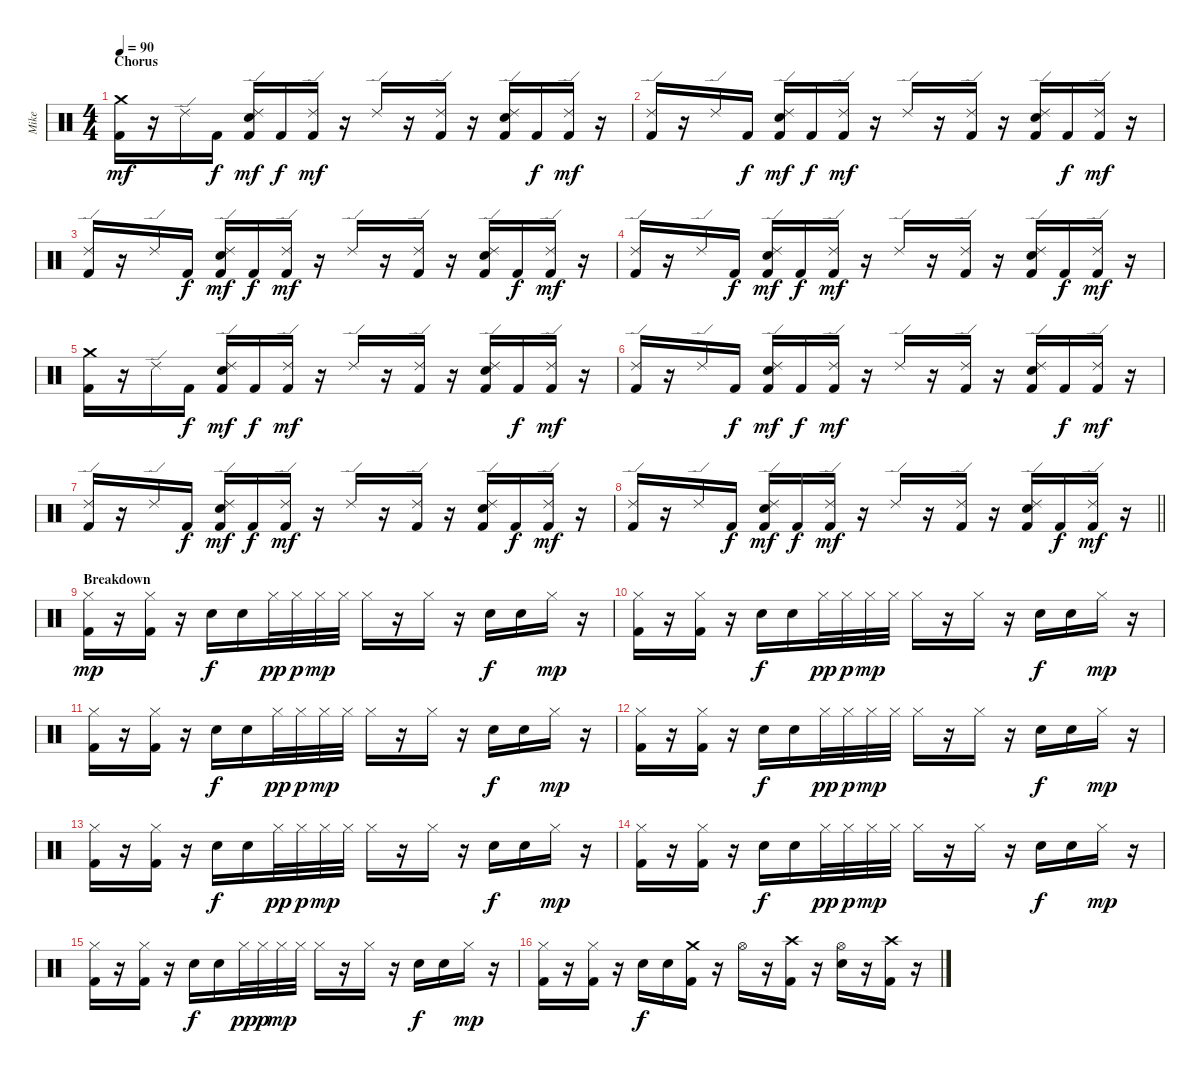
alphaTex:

\track ("Mike" "Mike") {instrument percussion}
\staff {score}
\articulation defaults
\ts (4 4)
\section ("" "Chorus")
\tempo 90
\clef neutral
\ks c
("Crash medium (hit)" "Kick (hit) 2").16{dy mf} r.16 "Ride (edge) 2".16 "Kick (hit) 2".16{dy f} ("Ride (edge) 2" "Snare (hit) 2" "Kick (hit) 2").16{dy mf} "Kick (hit) 2".16{dy f} ("Ride (edge) 2" "Kick (hit) 2").16{dy mf} r.16 "Ride (edge) 2".16 r.16 ("Ride (edge) 2" "Kick (hit) 2").16 r.16 ("Ride (edge) 2" "Snare (hit) 2" "Kick (hit) 2").16 "Kick (hit) 2".16{dy f} ("Ride (edge) 2" "Kick (hit) 2").16{dy mf} r.16 |
("Ride (edge) 2" "Kick (hit) 2").16 r.16 "Ride (edge) 2".16 "Kick (hit) 2".16{dy f} ("Ride (edge) 2" "Snare (hit) 2" "Kick (hit) 2").16{dy mf} "Kick (hit) 2".16{dy f} ("Ride (edge) 2" "Kick (hit) 2").16{dy mf} r.16 "Ride (edge) 2".16 r.16 ("Ride (edge) 2" "Kick (hit) 2").16 r.16 ("Ride (edge) 2" "Snare (hit) 2" "Kick (hit) 2").16 "Kick (hit) 2".16{dy f} ("Ride (edge) 2" "Kick (hit) 2").16{dy mf} r.16 |
("Ride (edge) 2" "Kick (hit) 2").16 r.16 "Ride (edge) 2".16 "Kick (hit) 2".16{dy f} ("Ride (edge) 2" "Snare (hit) 2" "Kick (hit) 2").16{dy mf} "Kick (hit) 2".16{dy f} ("Ride (edge) 2" "Kick (hit) 2").16{dy mf} r.16 "Ride (edge) 2".16 r.16 ("Ride (edge) 2" "Kick (hit) 2").16 r.16 ("Ride (edge) 2" "Snare (hit) 2" "Kick (hit) 2").16 "Kick (hit) 2".16{dy f} ("Ride (edge) 2" "Kick (hit) 2").16{dy mf} r.16 |
("Ride (edge) 2" "Kick (hit) 2").16 r.16 "Ride (edge) 2".16 "Kick (hit) 2".16{dy f} ("Ride (edge) 2" "Snare (hit) 2" "Kick (hit) 2").16{dy mf} "Kick (hit) 2".16{dy f} ("Ride (edge) 2" "Kick (hit) 2").16{dy mf} r.16 "Ride (edge) 2".16 r.16 ("Ride (edge) 2" "Kick (hit) 2").16 r.16 ("Ride (edge) 2" "Snare (hit) 2" "Kick (hit) 2").16 "Kick (hit) 2".16{dy f} ("Ride (edge) 2" "Kick (hit) 2").16{dy mf} r.16 |
("Crash medium (hit)" "Kick (hit) 2").16 r.16 "Ride (edge) 2".16 "Kick (hit) 2".16{dy f} ("Ride (edge) 2" "Snare (hit) 2" "Kick (hit) 2").16{dy mf} "Kick (hit) 2".16{dy f} ("Ride (edge) 2" "Kick (hit) 2").16{dy mf} r.16 "Ride (edge) 2".16 r.16 ("Ride (edge) 2" "Kick (hit) 2").16 r.16 ("Ride (edge) 2" "Snare (hit) 2" "Kick (hit) 2").16 "Kick (hit) 2".16{dy f} ("Ride (edge) 2" "Kick (hit) 2").16{dy mf} r.16 |
("Ride (edge) 2" "Kick (hit) 2").16 r.16 "Ride (edge) 2".16 "Kick (hit) 2".16{dy f} ("Ride (edge) 2" "Snare (hit) 2" "Kick (hit) 2").16{dy mf} "Kick (hit) 2".16{dy f} ("Ride (edge) 2" "Kick (hit) 2").16{dy mf} r.16 "Ride (edge) 2".16 r.16 ("Ride (edge) 2" "Kick (hit) 2").16 r.16 ("Ride (edge) 2" "Snare (hit) 2" "Kick (hit) 2").16 "Kick (hit) 2".16{dy f} ("Ride (edge) 2" "Kick (hit) 2").16{dy mf} r.16 |
("Ride (edge) 2" "Kick (hit) 2").16 r.16 "Ride (edge) 2".16 "Kick (hit) 2".16{dy f} ("Ride (edge) 2" "Snare (hit) 2" "Kick (hit) 2").16{dy mf} "Kick (hit) 2".16{dy f} ("Ride (edge) 2" "Kick (hit) 2").16{dy mf} r.16 "Ride (edge) 2".16 r.16 ("Ride (edge) 2" "Kick (hit) 2").16 r.16 ("Ride (edge) 2" "Snare (hit) 2" "Kick (hit) 2").16 "Kick (hit) 2".16{dy f} ("Ride (edge) 2" "Kick (hit) 2").16{dy mf} r.16 |
\barLineRight lightlight
("Ride (edge) 2" "Kick (hit) 2").16 r.16 "Ride (edge) 2".16 "Kick (hit) 2".16{dy f} ("Ride (edge) 2" "Snare (hit) 2" "Kick (hit) 2").16{dy mf} "Kick (hit) 2".16{dy f} ("Ride (edge) 2" "Kick (hit) 2").16{dy mf} r.16 "Ride (edge) 2".16 r.16 ("Ride (edge) 2" "Kick (hit) 2").16 r.16 ("Ride (edge) 2" "Snare (hit) 2" "Kick (hit) 2").16 "Kick (hit) 2".16{dy f} ("Ride (edge) 2" "Kick (hit) 2").16{dy mf} r.16 |
\section ("" "Breakdown")
("Hi-Hat (closed)" "Kick (hit) 2").16{dy mp} r.16 ("Hi-Hat (closed)" "Kick (hit) 2").16 r.16 "Snare (hit) 2".16{dy f} "Snare (hit) 2".16 "Hi-Hat (closed)".32{dy pp} "Hi-Hat (closed)".32{dy p} "Hi-Hat (closed)".32{dy mp} "Hi-Hat (closed)".32 "Hi-Hat (closed)".16 r.16 "Hi-Hat (closed)".16 r.16 "Snare (hit) 2".16{dy f} "Snare (hit) 2".16 "Hi-Hat (closed)".16{dy mp} r.16 |
("Hi-Hat (closed)" "Kick (hit) 2").16 r.16 ("Hi-Hat (closed)" "Kick (hit) 2").16 r.16 "Snare (hit) 2".16{dy f} "Snare (hit) 2".16 "Hi-Hat (closed)".32{dy pp} "Hi-Hat (closed)".32{dy p} "Hi-Hat (closed)".32{dy mp} "Hi-Hat (closed)".32 "Hi-Hat (closed)".16 r.16 "Hi-Hat (closed)".16 r.16 "Snare (hit) 2".16{dy f} "Snare (hit) 2".16 "Hi-Hat (closed)".16{dy mp} r.16 |
("Hi-Hat (closed)" "Kick (hit) 2").16 r.16 ("Hi-Hat (closed)" "Kick (hit) 2").16 r.16 "Snare (hit) 2".16{dy f} "Snare (hit) 2".16 "Hi-Hat (closed)".32{dy pp} "Hi-Hat (closed)".32{dy p} "Hi-Hat (closed)".32{dy mp} "Hi-Hat (closed)".32 "Hi-Hat (closed)".16 r.16 "Hi-Hat (closed)".16 r.16 "Snare (hit) 2".16{dy f} "Snare (hit) 2".16 "Hi-Hat (closed)".16{dy mp} r.16 |
("Hi-Hat (closed)" "Kick (hit) 2").16 r.16 ("Hi-Hat (closed)" "Kick (hit) 2").16 r.16 "Snare (hit) 2".16{dy f} "Snare (hit) 2".16 "Hi-Hat (closed)".32{dy pp} "Hi-Hat (closed)".32{dy p} "Hi-Hat (closed)".32{dy mp} "Hi-Hat (closed)".32 "Hi-Hat (closed)".16 r.16 "Hi-Hat (closed)".16 r.16 "Snare (hit) 2".16{dy f} "Snare (hit) 2".16 "Hi-Hat (closed)".16{dy mp} r.16 |
("Hi-Hat (closed)" "Kick (hit) 2").16 r.16 ("Hi-Hat (closed)" "Kick (hit) 2").16 r.16 "Snare (hit) 2".16{dy f} "Snare (hit) 2".16 "Hi-Hat (closed)".32{dy pp} "Hi-Hat (closed)".32{dy p} "Hi-Hat (closed)".32{dy mp} "Hi-Hat (closed)".32 "Hi-Hat (closed)".16 r.16 "Hi-Hat (closed)".16 r.16 "Snare (hit) 2".16{dy f} "Snare (hit) 2".16 "Hi-Hat (closed)".16{dy mp} r.16 |
("Hi-Hat (closed)" "Kick (hit) 2").16 r.16 ("Hi-Hat (closed)" "Kick (hit) 2").16 r.16 "Snare (hit) 2".16{dy f} "Snare (hit) 2".16 "Hi-Hat (closed)".32{dy pp} "Hi-Hat (closed)".32{dy p} "Hi-Hat (closed)".32{dy mp} "Hi-Hat (closed)".32 "Hi-Hat (closed)".16 r.16 "Hi-Hat (closed)".16 r.16 "Snare (hit) 2".16{dy f} "Snare (hit) 2".16 "Hi-Hat (closed)".16{dy mp} r.16 |
("Hi-Hat (closed)" "Kick (hit) 2").16 r.16 ("Hi-Hat (closed)" "Kick (hit) 2").16 r.16 "Snare (hit) 2".16{dy f} "Snare (hit) 2".16 "Hi-Hat (closed)".32{dy pp} "Hi-Hat (closed)".32{dy p} "Hi-Hat (closed)".32{dy mp} "Hi-Hat (closed)".32 "Hi-Hat (closed)".16 r.16 "Hi-Hat (closed)".16 r.16 "Snare (hit) 2".16{dy f} "Snare (hit) 2".16 "Hi-Hat (closed)".16{dy mp} r.16 |
("Hi-Hat (closed)" "Kick (hit) 2").16 r.16 ("Hi-Hat (closed)" "Kick (hit) 2").16 r.16 "Snare (hit) 2".16{dy f} "Snare (hit) 2".16 ("Crash medium (hit)" "Kick (hit) 2").16 r.16 "Hi-Hat (open)".16 r.16 ("Crash high (hit)" "Kick (hit) 2").16 r.16 ("Hi-Hat (open)" "Snare (hit) 2").16 r.16 ("Crash high (hit)" "Kick (hit) 2").16 r.16
